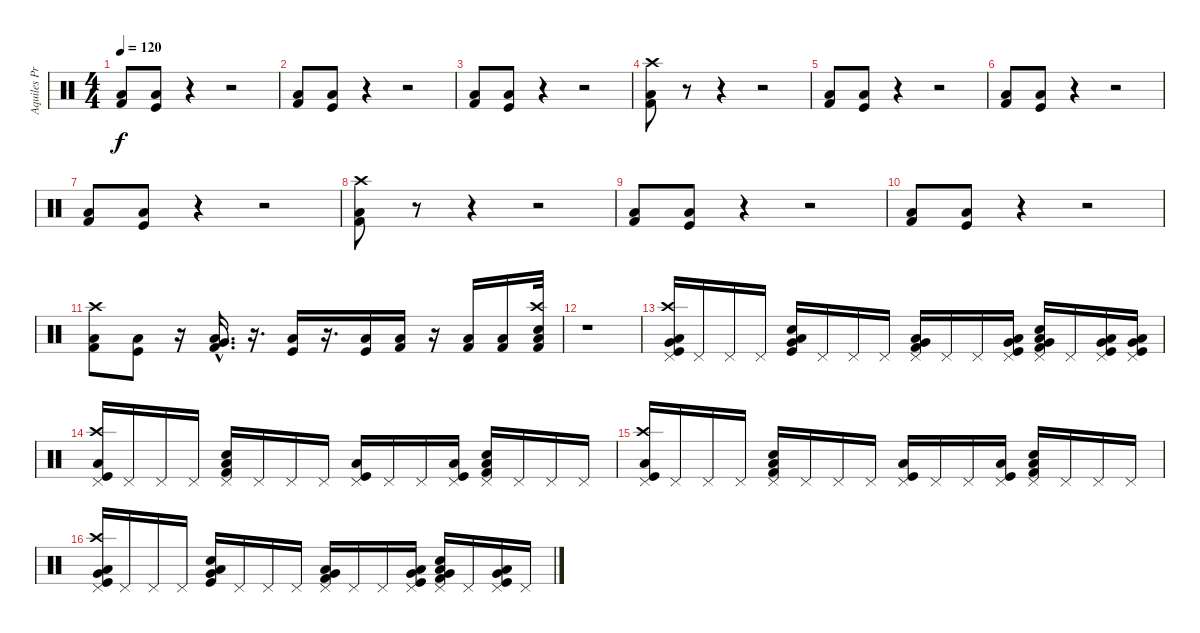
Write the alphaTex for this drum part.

\track ("Aquiles Priester" "Aquiles Pr") {instrument percussion}
\staff {score}
\articulation defaults
\ts (4 4)
\tempo 120
\clef neutral
\ks c
("Kick (hit) 2" "Low Floor Tom (hit)").8{dy f} ("Kick (hit)" "Low Floor Tom (hit)").8 r.4 r.2 |
("Kick (hit) 2" "Low Floor Tom (hit)").8 ("Kick (hit)" "Low Floor Tom (hit)").8 r.4 r.2 |
("Kick (hit) 2" "Low Floor Tom (hit)").8 ("Kick (hit)" "Low Floor Tom (hit)").8 r.4 r.2 |
("Kick (hit) 2" "Low Floor Tom (hit)" "Crash high (hit)").8 r.8 r.4 r.2 |
("Kick (hit) 2" "Low Floor Tom (hit)").8 ("Kick (hit)" "Low Floor Tom (hit)").8 r.4 r.2 |
("Kick (hit) 2" "Low Floor Tom (hit)").8 ("Kick (hit)" "Low Floor Tom (hit)").8 r.4 r.2 |
("Kick (hit) 2" "Low Floor Tom (hit)").8 ("Kick (hit)" "Low Floor Tom (hit)").8 r.4 r.2 |
("Kick (hit) 2" "Low Floor Tom (hit)" "Crash high (hit)").8 r.8 r.4 r.2 |
("Kick (hit) 2" "Low Floor Tom (hit)").8 ("Kick (hit)" "Low Floor Tom (hit)").8 r.4 r.2 |
("Kick (hit) 2" "Low Floor Tom (hit)").8 ("Kick (hit)" "Low Floor Tom (hit)").8 r.4 r.2 |
("Kick (hit) 2" "Low Floor Tom (hit)" "Crash high (hit)").8 ("Kick (hit)" "Low Floor Tom (hit)").8 r.16 ("Kick (hit) 2"{hac} "Very Low Tom (hit)"{hac} "Low Floor Tom (hit)"{hac}).16{d} r.16{d} ("Kick (hit)" "Low Floor Tom (hit)").16 r.16{d} ("Kick (hit)" "Low Floor Tom (hit)").16 ("Kick (hit) 2" "Low Floor Tom (hit)").16 r.16 ("Kick (hit) 2" "Low Floor Tom (hit)").16 ("Kick (hit) 2" "Low Floor Tom (hit)").16 ("Kick (hit) 2" "Low Floor Tom (hit)" "Electric Snare (hit)" "Crash high (hit)").32 |
r.1 |
("Kick (hit)" "Low Floor Tom (hit)" "Crash high (hit)" "Pedal Hi-Hat (hit)" "Very Low Tom (hit)").16 "Pedal Hi-Hat (hit)".16 "Pedal Hi-Hat (hit)".16 "Pedal Hi-Hat (hit)".16 ("Kick (hit)" "Low Floor Tom (hit)" "Electric Snare (hit)" "Very Low Tom (hit)").16 "Pedal Hi-Hat (hit)".16 "Pedal Hi-Hat (hit)".16 "Pedal Hi-Hat (hit)".16 ("Kick (hit) 2" "Low Floor Tom (hit)" "Pedal Hi-Hat (hit)" "Very Low Tom (hit)").16 "Pedal Hi-Hat (hit)".16 "Pedal Hi-Hat (hit)".16 ("Kick (hit)" "Low Floor Tom (hit)" "Pedal Hi-Hat (hit)" "Very Low Tom (hit)").16 ("Kick (hit) 2" "Low Floor Tom (hit)" "Electric Snare (hit)" "Pedal Hi-Hat (hit)" "Very Low Tom (hit)").16 "Pedal Hi-Hat (hit)".16 ("Kick (hit)" "Low Floor Tom (hit)" "Pedal Hi-Hat (hit)" "Very Low Tom (hit)").16 ("Kick (hit)" "Low Floor Tom (hit)" "Pedal Hi-Hat (hit)" "Very Low Tom (hit)").16 |
("Kick (hit)" "Low Floor Tom (hit)" "Crash high (hit)" "Pedal Hi-Hat (hit)").16 "Pedal Hi-Hat (hit)".16 "Pedal Hi-Hat (hit)".16 "Pedal Hi-Hat (hit)".16 ("Kick (hit) 2" "Low Floor Tom (hit)" "Electric Snare (hit)" "Pedal Hi-Hat (hit)").16 "Pedal Hi-Hat (hit)".16 "Pedal Hi-Hat (hit)".16 "Pedal Hi-Hat (hit)".16 ("Kick (hit)" "Low Floor Tom (hit)" "Pedal Hi-Hat (hit)").16 "Pedal Hi-Hat (hit)".16 "Pedal Hi-Hat (hit)".16 ("Kick (hit)" "Low Floor Tom (hit)" "Pedal Hi-Hat (hit)").16 ("Kick (hit) 2" "Low Floor Tom (hit)" "Electric Snare (hit)" "Pedal Hi-Hat (hit)").16 "Pedal Hi-Hat (hit)".16 "Pedal Hi-Hat (hit)".16 "Pedal Hi-Hat (hit)".16 |
("Kick (hit)" "Low Floor Tom (hit)" "Crash high (hit)" "Pedal Hi-Hat (hit)").16 "Pedal Hi-Hat (hit)".16 "Pedal Hi-Hat (hit)".16 "Pedal Hi-Hat (hit)".16 ("Kick (hit) 2" "Low Floor Tom (hit)" "Electric Snare (hit)" "Pedal Hi-Hat (hit)").16 "Pedal Hi-Hat (hit)".16 "Pedal Hi-Hat (hit)".16 "Pedal Hi-Hat (hit)".16 ("Kick (hit)" "Low Floor Tom (hit)" "Pedal Hi-Hat (hit)").16 "Pedal Hi-Hat (hit)".16 "Pedal Hi-Hat (hit)".16 ("Kick (hit)" "Low Floor Tom (hit)" "Pedal Hi-Hat (hit)").16 ("Kick (hit) 2" "Low Floor Tom (hit)" "Electric Snare (hit)" "Pedal Hi-Hat (hit)").16 "Pedal Hi-Hat (hit)".16 "Pedal Hi-Hat (hit)".16 "Pedal Hi-Hat (hit)".16 |
("Kick (hit)" "Low Floor Tom (hit)" "Crash high (hit)" "Pedal Hi-Hat (hit)" "Very Low Tom (hit)").16 "Pedal Hi-Hat (hit)".16 "Pedal Hi-Hat (hit)".16 "Pedal Hi-Hat (hit)".16 ("Kick (hit)" "Low Floor Tom (hit)" "Electric Snare (hit)" "Very Low Tom (hit)").16 "Pedal Hi-Hat (hit)".16 "Pedal Hi-Hat (hit)".16 "Pedal Hi-Hat (hit)".16 ("Kick (hit) 2" "Low Floor Tom (hit)" "Pedal Hi-Hat (hit)" "Very Low Tom (hit)").16 "Pedal Hi-Hat (hit)".16 "Pedal Hi-Hat (hit)".16 ("Kick (hit)" "Low Floor Tom (hit)" "Pedal Hi-Hat (hit)" "Very Low Tom (hit)").16 ("Kick (hit) 2" "Low Floor Tom (hit)" "Electric Snare (hit)" "Pedal Hi-Hat (hit)" "Very Low Tom (hit)").16 "Pedal Hi-Hat (hit)".16 ("Kick (hit)" "Low Floor Tom (hit)" "Pedal Hi-Hat (hit)" "Very Low Tom (hit)").16 "Pedal Hi-Hat (hit)".16
